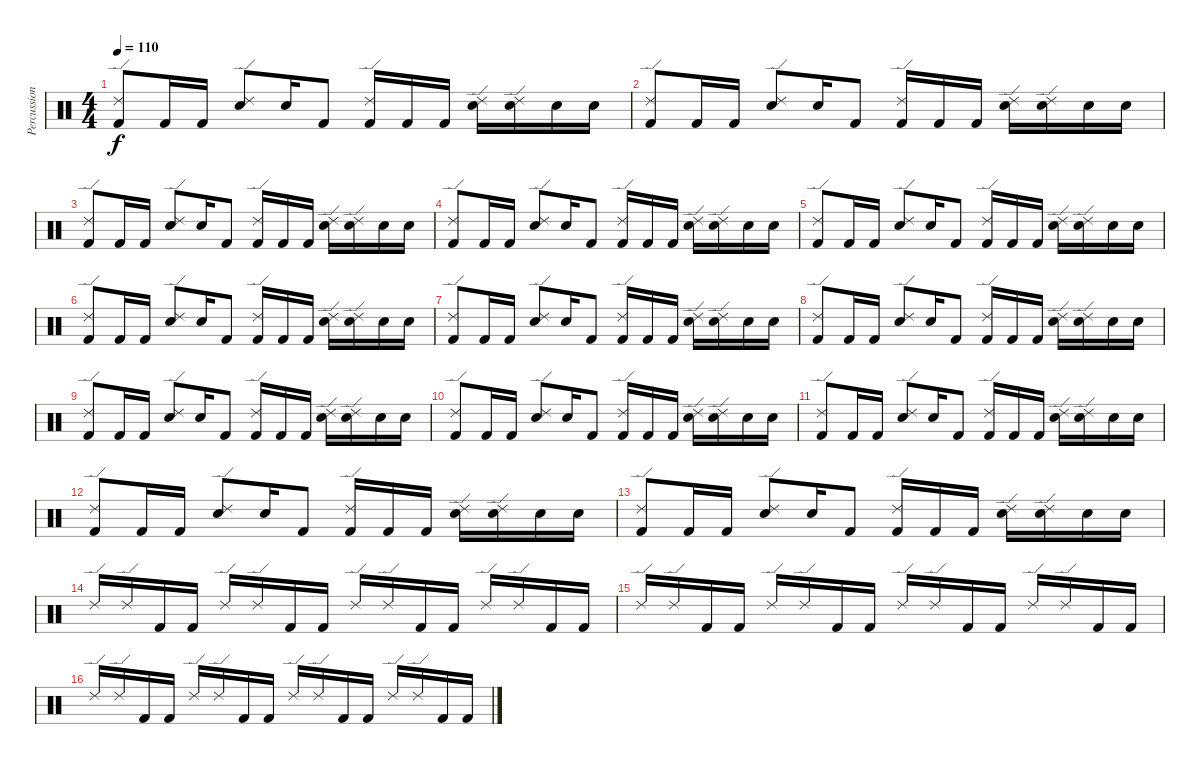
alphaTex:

\track ("Percussion" "Percussion") {instrument percussion}
\staff {score}
\articulation defaults
\ts (4 4)
\tempo 110
\clef neutral
\ks c
("Ride (edge) 2" "Kick (hit) 2").8{dy f} "Kick (hit) 2".16 "Kick (hit) 2".16 ("Ride (edge) 2" "Electric Snare (hit)").8 "Electric Snare (hit)".16 "Kick (hit) 2".8 ("Ride (edge) 2" "Kick (hit) 2").16 "Kick (hit) 2".16 "Kick (hit) 2".16 ("Ride (edge) 2" "Electric Snare (hit)").16 ("Ride (edge) 2" "Electric Snare (hit)").16 "Electric Snare (hit)".16 "Electric Snare (hit)".16 |
("Ride (edge) 2" "Kick (hit) 2").8 "Kick (hit) 2".16 "Kick (hit) 2".16 ("Ride (edge) 2" "Electric Snare (hit)").8 "Electric Snare (hit)".16 "Kick (hit) 2".8 ("Ride (edge) 2" "Kick (hit) 2").16 "Kick (hit) 2".16 "Kick (hit) 2".16 ("Ride (edge) 2" "Electric Snare (hit)").16 ("Ride (edge) 2" "Electric Snare (hit)").16 "Electric Snare (hit)".16 "Electric Snare (hit)".16 |
("Ride (edge) 2" "Kick (hit) 2").8 "Kick (hit) 2".16 "Kick (hit) 2".16 ("Ride (edge) 2" "Electric Snare (hit)").8 "Electric Snare (hit)".16 "Kick (hit) 2".8 ("Ride (edge) 2" "Kick (hit) 2").16 "Kick (hit) 2".16 "Kick (hit) 2".16 ("Ride (edge) 2" "Electric Snare (hit)").16 ("Ride (edge) 2" "Electric Snare (hit)").16 "Electric Snare (hit)".16 "Electric Snare (hit)".16 |
("Ride (edge) 2" "Kick (hit) 2").8 "Kick (hit) 2".16 "Kick (hit) 2".16 ("Ride (edge) 2" "Electric Snare (hit)").8 "Electric Snare (hit)".16 "Kick (hit) 2".8 ("Ride (edge) 2" "Kick (hit) 2").16 "Kick (hit) 2".16 "Kick (hit) 2".16 ("Ride (edge) 2" "Electric Snare (hit)").16 ("Ride (edge) 2" "Electric Snare (hit)").16 "Electric Snare (hit)".16 "Electric Snare (hit)".16 |
("Ride (edge) 2" "Kick (hit) 2").8 "Kick (hit) 2".16 "Kick (hit) 2".16 ("Ride (edge) 2" "Electric Snare (hit)").8 "Electric Snare (hit)".16 "Kick (hit) 2".8 ("Ride (edge) 2" "Kick (hit) 2").16 "Kick (hit) 2".16 "Kick (hit) 2".16 ("Ride (edge) 2" "Electric Snare (hit)").16 ("Ride (edge) 2" "Electric Snare (hit)").16 "Electric Snare (hit)".16 "Electric Snare (hit)".16 |
("Ride (edge) 2" "Kick (hit) 2").8 "Kick (hit) 2".16 "Kick (hit) 2".16 ("Ride (edge) 2" "Electric Snare (hit)").8 "Electric Snare (hit)".16 "Kick (hit) 2".8 ("Ride (edge) 2" "Kick (hit) 2").16 "Kick (hit) 2".16 "Kick (hit) 2".16 ("Ride (edge) 2" "Electric Snare (hit)").16 ("Ride (edge) 2" "Electric Snare (hit)").16 "Electric Snare (hit)".16 "Electric Snare (hit)".16 |
("Ride (edge) 2" "Kick (hit) 2").8 "Kick (hit) 2".16 "Kick (hit) 2".16 ("Ride (edge) 2" "Electric Snare (hit)").8 "Electric Snare (hit)".16 "Kick (hit) 2".8 ("Ride (edge) 2" "Kick (hit) 2").16 "Kick (hit) 2".16 "Kick (hit) 2".16 ("Ride (edge) 2" "Electric Snare (hit)").16 ("Ride (edge) 2" "Electric Snare (hit)").16 "Electric Snare (hit)".16 "Electric Snare (hit)".16 |
("Ride (edge) 2" "Kick (hit) 2").8 "Kick (hit) 2".16 "Kick (hit) 2".16 ("Ride (edge) 2" "Electric Snare (hit)").8 "Electric Snare (hit)".16 "Kick (hit) 2".8 ("Ride (edge) 2" "Kick (hit) 2").16 "Kick (hit) 2".16 "Kick (hit) 2".16 ("Ride (edge) 2" "Electric Snare (hit)").16 ("Ride (edge) 2" "Electric Snare (hit)").16 "Electric Snare (hit)".16 "Electric Snare (hit)".16 |
("Ride (edge) 2" "Kick (hit) 2").8 "Kick (hit) 2".16 "Kick (hit) 2".16 ("Ride (edge) 2" "Electric Snare (hit)").8 "Electric Snare (hit)".16 "Kick (hit) 2".8 ("Ride (edge) 2" "Kick (hit) 2").16 "Kick (hit) 2".16 "Kick (hit) 2".16 ("Ride (edge) 2" "Electric Snare (hit)").16 ("Ride (edge) 2" "Electric Snare (hit)").16 "Electric Snare (hit)".16 "Electric Snare (hit)".16 |
("Ride (edge) 2" "Kick (hit) 2").8 "Kick (hit) 2".16 "Kick (hit) 2".16 ("Ride (edge) 2" "Electric Snare (hit)").8 "Electric Snare (hit)".16 "Kick (hit) 2".8 ("Ride (edge) 2" "Kick (hit) 2").16 "Kick (hit) 2".16 "Kick (hit) 2".16 ("Ride (edge) 2" "Electric Snare (hit)").16 ("Ride (edge) 2" "Electric Snare (hit)").16 "Electric Snare (hit)".16 "Electric Snare (hit)".16 |
("Ride (edge) 2" "Kick (hit) 2").8 "Kick (hit) 2".16 "Kick (hit) 2".16 ("Ride (edge) 2" "Electric Snare (hit)").8 "Electric Snare (hit)".16 "Kick (hit) 2".8 ("Ride (edge) 2" "Kick (hit) 2").16 "Kick (hit) 2".16 "Kick (hit) 2".16 ("Ride (edge) 2" "Electric Snare (hit)").16 ("Ride (edge) 2" "Electric Snare (hit)").16 "Electric Snare (hit)".16 "Electric Snare (hit)".16 |
("Ride (edge) 2" "Kick (hit) 2").8 "Kick (hit) 2".16 "Kick (hit) 2".16 ("Ride (edge) 2" "Electric Snare (hit)").8 "Electric Snare (hit)".16 "Kick (hit) 2".8 ("Ride (edge) 2" "Kick (hit) 2").16 "Kick (hit) 2".16 "Kick (hit) 2".16 ("Ride (edge) 2" "Electric Snare (hit)").16 ("Ride (edge) 2" "Electric Snare (hit)").16 "Electric Snare (hit)".16 "Electric Snare (hit)".16 |
("Ride (edge) 2" "Kick (hit) 2").8 "Kick (hit) 2".16 "Kick (hit) 2".16 ("Ride (edge) 2" "Electric Snare (hit)").8 "Electric Snare (hit)".16 "Kick (hit) 2".8 ("Ride (edge) 2" "Kick (hit) 2").16 "Kick (hit) 2".16 "Kick (hit) 2".16 ("Ride (edge) 2" "Electric Snare (hit)").16 ("Ride (edge) 2" "Electric Snare (hit)").16 "Electric Snare (hit)".16 "Electric Snare (hit)".16 |
"Ride (edge) 2".16 "Ride (edge) 2".16 "Kick (hit) 2".16 "Kick (hit) 2".16 "Ride (edge) 2".16 "Ride (edge) 2".16 "Kick (hit) 2".16 "Kick (hit) 2".16 "Ride (edge) 2".16 "Ride (edge) 2".16 "Kick (hit) 2".16 "Kick (hit) 2".16 "Ride (edge) 2".16 "Ride (edge) 2".16 "Kick (hit) 2".16 "Kick (hit) 2".16 |
"Ride (edge) 2".16 "Ride (edge) 2".16 "Kick (hit) 2".16 "Kick (hit) 2".16 "Ride (edge) 2".16 "Ride (edge) 2".16 "Kick (hit) 2".16 "Kick (hit) 2".16 "Ride (edge) 2".16 "Ride (edge) 2".16 "Kick (hit) 2".16 "Kick (hit) 2".16 "Ride (edge) 2".16 "Ride (edge) 2".16 "Kick (hit) 2".16 "Kick (hit) 2".16 |
"Ride (edge) 2".16 "Ride (edge) 2".16 "Kick (hit) 2".16 "Kick (hit) 2".16 "Ride (edge) 2".16 "Ride (edge) 2".16 "Kick (hit) 2".16 "Kick (hit) 2".16 "Ride (edge) 2".16 "Ride (edge) 2".16 "Kick (hit) 2".16 "Kick (hit) 2".16 "Ride (edge) 2".16 "Ride (edge) 2".16 "Kick (hit) 2".16 "Kick (hit) 2".16
